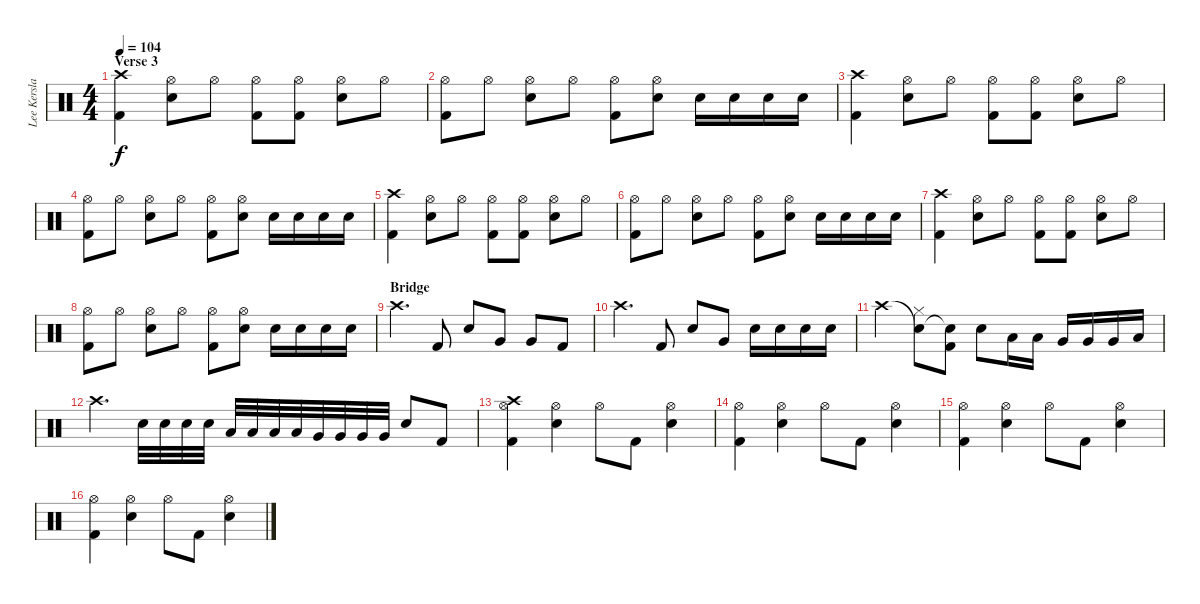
\track ("Lee Kerslake" "Lee Kersla") {instrument percussion}
\staff {score}
\articulation defaults
\ts (4 4)
\section ("" "Verse 3")
\tempo 104
\clef neutral
\ks c
("Crash high (hit)" "Kick (hit) 2").4{dy f} ("Hi-Hat (open)" "Electric Snare (hit)").8 "Hi-Hat (open)".8 ("Hi-Hat (open)" "Kick (hit) 2").8 ("Hi-Hat (open)" "Kick (hit) 2").8 ("Hi-Hat (open)" "Electric Snare (hit)").8 "Hi-Hat (open)".8 |
("Hi-Hat (open)" "Kick (hit) 2").8 "Hi-Hat (open)".8 ("Hi-Hat (open)" "Electric Snare (hit)").8 "Hi-Hat (open)".8 ("Hi-Hat (open)" "Kick (hit) 2").8 ("Hi-Hat (open)" "Electric Snare (hit)").8 "Electric Snare (hit)".16 "Electric Snare (hit)".16 "Electric Snare (hit)".16 "Electric Snare (hit)".16 |
("Crash high (hit)" "Kick (hit) 2").4 ("Hi-Hat (open)" "Electric Snare (hit)").8 "Hi-Hat (open)".8 ("Hi-Hat (open)" "Kick (hit) 2").8 ("Hi-Hat (open)" "Kick (hit) 2").8 ("Hi-Hat (open)" "Electric Snare (hit)").8 "Hi-Hat (open)".8 |
("Hi-Hat (open)" "Kick (hit) 2").8 "Hi-Hat (open)".8 ("Hi-Hat (open)" "Electric Snare (hit)").8 "Hi-Hat (open)".8 ("Hi-Hat (open)" "Kick (hit) 2").8 ("Hi-Hat (open)" "Electric Snare (hit)").8 "Electric Snare (hit)".16 "Electric Snare (hit)".16 "Electric Snare (hit)".16 "Electric Snare (hit)".16 |
("Crash high (hit)" "Kick (hit) 2").4 ("Hi-Hat (open)" "Electric Snare (hit)").8 "Hi-Hat (open)".8 ("Hi-Hat (open)" "Kick (hit) 2").8 ("Hi-Hat (open)" "Kick (hit) 2").8 ("Hi-Hat (open)" "Electric Snare (hit)").8 "Hi-Hat (open)".8 |
("Hi-Hat (open)" "Kick (hit) 2").8 "Hi-Hat (open)".8 ("Hi-Hat (open)" "Electric Snare (hit)").8 "Hi-Hat (open)".8 ("Hi-Hat (open)" "Kick (hit) 2").8 ("Hi-Hat (open)" "Electric Snare (hit)").8 "Electric Snare (hit)".16 "Electric Snare (hit)".16 "Electric Snare (hit)".16 "Electric Snare (hit)".16 |
("Crash high (hit)" "Kick (hit) 2").4 ("Hi-Hat (open)" "Electric Snare (hit)").8 "Hi-Hat (open)".8 ("Hi-Hat (open)" "Kick (hit) 2").8 ("Hi-Hat (open)" "Kick (hit) 2").8 ("Hi-Hat (open)" "Electric Snare (hit)").8 "Hi-Hat (open)".8 |
("Hi-Hat (open)" "Kick (hit) 2").8 "Hi-Hat (open)".8 ("Hi-Hat (open)" "Electric Snare (hit)").8 "Hi-Hat (open)".8 ("Hi-Hat (open)" "Kick (hit) 2").8 ("Hi-Hat (open)" "Electric Snare (hit)").8 "Electric Snare (hit)".16 "Electric Snare (hit)".16 "Electric Snare (hit)".16 "Electric Snare (hit)".16 |
\section ("" "Bridge")
"Crash high (hit)".4{d} "Kick (hit) 2".8 "Electric Snare (hit)".8 "Very Low Tom (hit)".8 "Very Low Tom (hit)".8 "Kick (hit) 2".8 |
"Crash high (hit)".4{d} "Kick (hit) 2".8 "Electric Snare (hit)".8 "Very Low Tom (hit)".8 "Electric Snare (hit)".16 "Electric Snare (hit)".16 "Electric Snare (hit)".16 "Electric Snare (hit)".16 |
"Crash high (hit)".4 ("Snare (hit)"{t} "Hi-Hat (closed)").8 ("Snare (hit)"{t} "Kick (hit) 2").8 "Electric Snare (hit)".8 "Low Tom (hit)".16 "Low Tom (hit)".16 "Very Low Tom (hit)".16 "Very Low Tom (hit)".16 "Very Low Tom (hit)".16 "Low Floor Tom (hit)".16 |
"Crash high (hit)".4{d} "Electric Snare (hit)".32 "Electric Snare (hit)".32 "Electric Snare (hit)".32 "Electric Snare (hit)".32 "Low Floor Tom (hit)".32 "Low Floor Tom (hit)".32 "Low Floor Tom (hit)".32 "Low Floor Tom (hit)".32 "Very Low Tom (hit)".32 "Very Low Tom (hit)".32 "Very Low Tom (hit)".32 "Very Low Tom (hit)".32 "Electric Snare (hit)".8 "Kick (hit) 2".8 |
("Crash high (hit)" "Hi-Hat (open)" "Kick (hit) 2").4 ("Hi-Hat (open)" "Electric Snare (hit)").4 "Hi-Hat (open)".8 "Kick (hit) 2".8 ("Hi-Hat (open)" "Electric Snare (hit)").4 |
("Hi-Hat (open)" "Kick (hit) 2").4 ("Hi-Hat (open)" "Electric Snare (hit)").4 "Hi-Hat (open)".8 "Kick (hit) 2".8 ("Hi-Hat (open)" "Electric Snare (hit)").4 |
("Hi-Hat (open)" "Kick (hit) 2").4 ("Hi-Hat (open)" "Electric Snare (hit)").4 "Hi-Hat (open)".8 "Kick (hit) 2".8 ("Hi-Hat (open)" "Electric Snare (hit)").4 |
("Hi-Hat (open)" "Kick (hit) 2").4 ("Hi-Hat (open)" "Electric Snare (hit)").4 "Hi-Hat (open)".8 "Kick (hit) 2".8 ("Hi-Hat (open)" "Electric Snare (hit)").4
